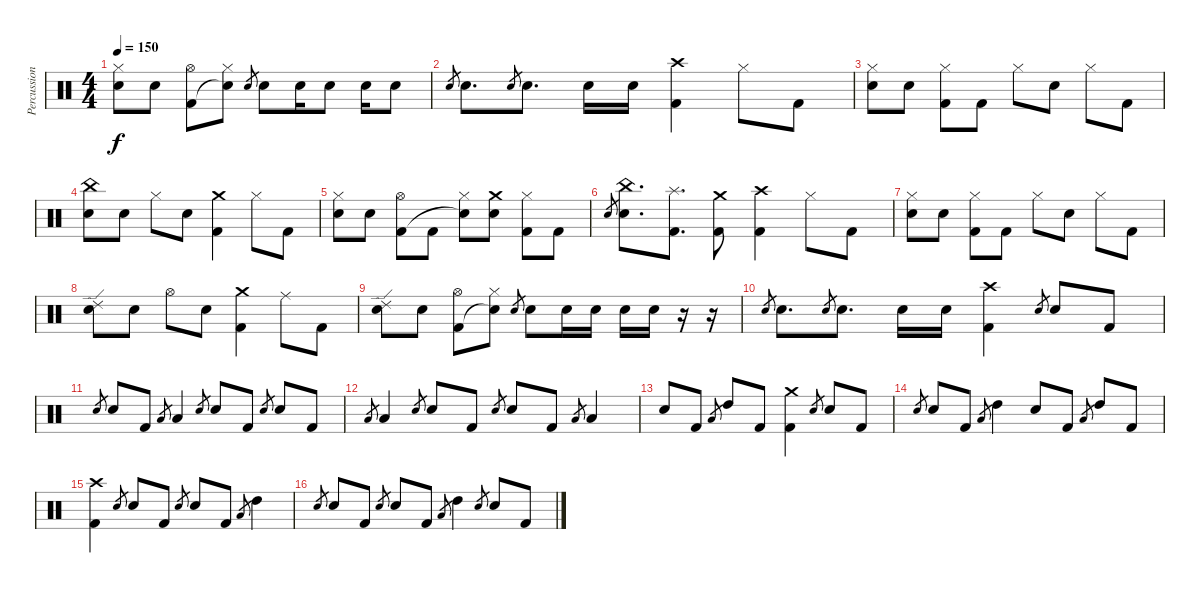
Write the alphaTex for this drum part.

\track ("Percussion" "Percussion") {instrument percussion}
\staff {score}
\articulation defaults
\ts (4 4)
\tempo 150
\clef neutral
\ks c
("Hi-Hat (closed)" "Electric Snare (hit)").8{dy f} "Electric Snare (hit)".8 ("Hi-Hat (open)" "Kick (hit) 2").8 ("Hi-Hat (closed)" "Snare (hit)"{t}).8 "Electric Snare (hit)".8{gr} "Electric Snare (hit)".8 "Electric Snare (hit)".16 "Electric Snare (hit)".8 "Electric Snare (hit)".16 "Electric Snare (hit)".8 |
"Electric Snare (hit)".8{gr} "Electric Snare (hit)".8{d} "Electric Snare (hit)".8{gr} "Electric Snare (hit)".8{d} "Electric Snare (hit)".16 "Electric Snare (hit)".16 ("Crash high (hit)" "Kick (hit) 2").4 "Hi-Hat (closed)".8 "Kick (hit) 2".8 |
("Hi-Hat (closed)" "Electric Snare (hit)").8 "Electric Snare (hit)".8 ("Hi-Hat (closed)" "Kick (hit) 2").8 "Kick (hit) 2".8 "Hi-Hat (closed)".8 "Electric Snare (hit)".8 "Hi-Hat (closed)".8 "Kick (hit) 2".8 |
("China (hit)" "Electric Snare (hit)").8 "Electric Snare (hit)".8 "Hi-Hat (closed)".8 "Electric Snare (hit)".8 ("Crash medium (hit)" "Kick (hit) 2").4 "Hi-Hat (closed)".8 "Kick (hit) 2".8 |
("Hi-Hat (closed)" "Electric Snare (hit)").8 "Electric Snare (hit)".8 ("Hi-Hat (open)" "Kick (hit) 2").8 "Kick (hit) 2".8 ("Hi-Hat (closed)" "Snare (hit)"{t}).8 ("Crash medium (hit)" "Electric Snare (hit)").8 ("Hi-Hat (closed)" "Kick (hit) 2").8 "Kick (hit) 2".8 |
"Electric Snare (hit)".8{gr} ("China (hit)" "Electric Snare (hit)").8{d} ("Splash (hit)" "Kick (hit) 2").8{d} ("Crash medium (hit)" "Kick (hit) 2").8 ("Crash high (hit)" "Kick (hit) 2").4 "Hi-Hat (closed)".8 "Kick (hit) 2".8 |
("Hi-Hat (closed)" "Electric Snare (hit)").8 "Electric Snare (hit)".8 ("Hi-Hat (closed)" "Kick (hit) 2").8 "Kick (hit) 2".8 "Hi-Hat (closed)".8 "Electric Snare (hit)".8 "Hi-Hat (closed)".8 "Kick (hit) 2".8 |
("Ride (edge) 2" "Electric Snare (hit)").8 "Electric Snare (hit)".8 "Hi-Hat (open)".8 "Electric Snare (hit)".8 ("Crash medium (hit)" "Kick (hit) 2").4 "Ride (middle)".8 "Kick (hit) 2".8 |
("Ride (edge) 2" "Electric Snare (hit)").8 "Electric Snare (hit)".8 ("Hi-Hat (open)" "Kick (hit) 2").8 ("Hi-Hat (closed)" "Snare (hit)"{t}).8 "Electric Snare (hit)".8{gr} "Electric Snare (hit)".8 "Electric Snare (hit)".16 "Electric Snare (hit)".16 "Electric Snare (hit)".16 "Electric Snare (hit)".16 r.16 r.16 |
"Electric Snare (hit)".8{gr} "Electric Snare (hit)".8{d} "Electric Snare (hit)".8{gr} "Electric Snare (hit)".8{d} "Electric Snare (hit)".16 "Electric Snare (hit)".16 ("Crash high (hit)" "Kick (hit) 2").4 "Electric Snare (hit)".8{gr} "Electric Snare (hit)".8 "Kick (hit) 2".8 |
"Electric Snare (hit)".8{gr} "Electric Snare (hit)".8 "Kick (hit) 2".8 "Low Tom (hit)".8{gr} "Low Tom (hit)".4 "Electric Snare (hit)".8{gr} "Electric Snare (hit)".8 "Kick (hit) 2".8 "Electric Snare (hit)".8{gr} "Electric Snare (hit)".8 "Kick (hit) 2".8 |
"Low Tom (hit)".8{gr} "Low Tom (hit)".4 "Electric Snare (hit)".8{gr} "Electric Snare (hit)".8 "Kick (hit) 2".8 "Electric Snare (hit)".8{gr} "Electric Snare (hit)".8 "Kick (hit) 2".8 "Low Tom (hit)".8{gr} "Low Tom (hit)".4 |
"Electric Snare (hit)".8 "Kick (hit) 2".8 "Low Tom (hit)".8{gr} "High Tom (hit)".8 "Kick (hit) 2".8 ("Crash medium (hit)" "Kick (hit) 2").4 "Electric Snare (hit)".8{gr} "Electric Snare (hit)".8 "Kick (hit) 2".8 |
"Electric Snare (hit)".8{gr} "Electric Snare (hit)".8 "Kick (hit) 2".8 "Low Tom (hit)".8{gr} "High Tom (hit)".4 "Electric Snare (hit)".8 "Kick (hit) 2".8 "Low Tom (hit)".8{gr} "High Tom (hit)".8 "Kick (hit) 2".8 |
("Crash high (hit)" "Kick (hit) 2").4 "Electric Snare (hit)".8{gr} "Electric Snare (hit)".8 "Kick (hit) 2".8 "Electric Snare (hit)".8{gr} "Electric Snare (hit)".8 "Kick (hit) 2".8 "Low Tom (hit)".8{gr} "High Tom (hit)".4 |
"Electric Snare (hit)".8{gr} "Electric Snare (hit)".8 "Kick (hit) 2".8 "Electric Snare (hit)".8{gr} "Electric Snare (hit)".8 "Kick (hit) 2".8 "Low Tom (hit)".8{gr} "High Tom (hit)".4 "Electric Snare (hit)".8{gr} "Electric Snare (hit)".8 "Kick (hit) 2".8
